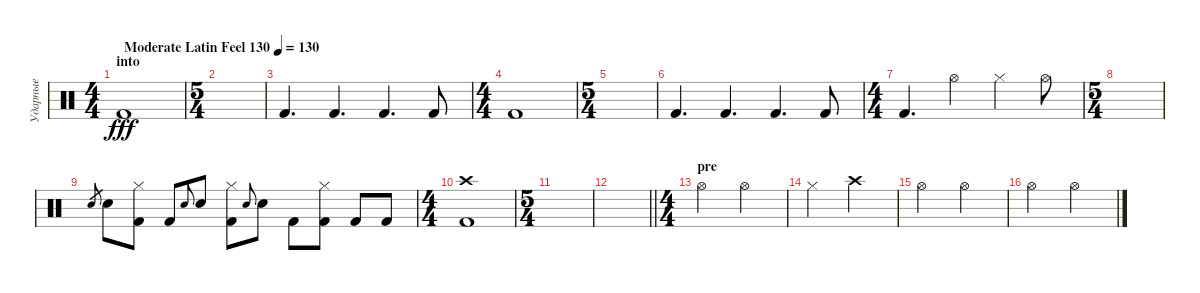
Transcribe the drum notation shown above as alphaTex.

\track ("Ударные" "Ударные") {instrument percussion}
\staff {score}
\articulation defaults
\ts (4 4)
\section ("" "into")
\tempo (130 "Moderate Latin Feel 130")
\clef neutral
\ks c "Kick (hit) 2".1{dy fff}
|
\ts (5 4)
|
"Kick (hit) 2".4{d} "Kick (hit) 2".4{d} "Kick (hit) 2".4{d} "Kick (hit) 2".8 |
\ts (4 4)
"Kick (hit) 2".1 |
\ts (5 4)
|
"Kick (hit) 2".4{d} "Kick (hit) 2".4{d} "Kick (hit) 2".4{d} "Kick (hit) 2".8 |
\ts (4 4)
"Kick (hit) 2".4{d} "Hi-Hat (open)".4 "Hi-Hat (closed)".4 "Hi-Hat (open)".8 |
\ts (5 4)
|
"Snare (hit) 2".8{gr} "Snare (hit) 2".8 ("Kick (hit) 2" "Hi-Hat (closed)").8 "Kick (hit) 2".8 "Snare (hit) 2".8{gr onbeat} "Snare (hit) 2".8 ("Kick (hit) 2" "Hi-Hat (closed)").8 "Snare (hit) 2".8{gr onbeat} "Snare (hit) 2".8 "Kick (hit) 2".8 ("Kick (hit) 2" "Hi-Hat (closed)").8 "Kick (hit) 2".8 "Kick (hit) 2".8 |
\ts (4 4)
("Crash high (hit)" "Kick (hit) 2").1 |
\ts (5 4)
|
\barLineRight lightlight
|
\ts (4 4)
\section ("" "pre")
"Hi-Hat (open)".2 "Hi-Hat (open)".2 |
"Hi-Hat (closed)".2 "Crash high (hit)".2 |
"Hi-Hat (open)".2 "Hi-Hat (open)".2 |
"Hi-Hat (open)".2 "Hi-Hat (open)".2
